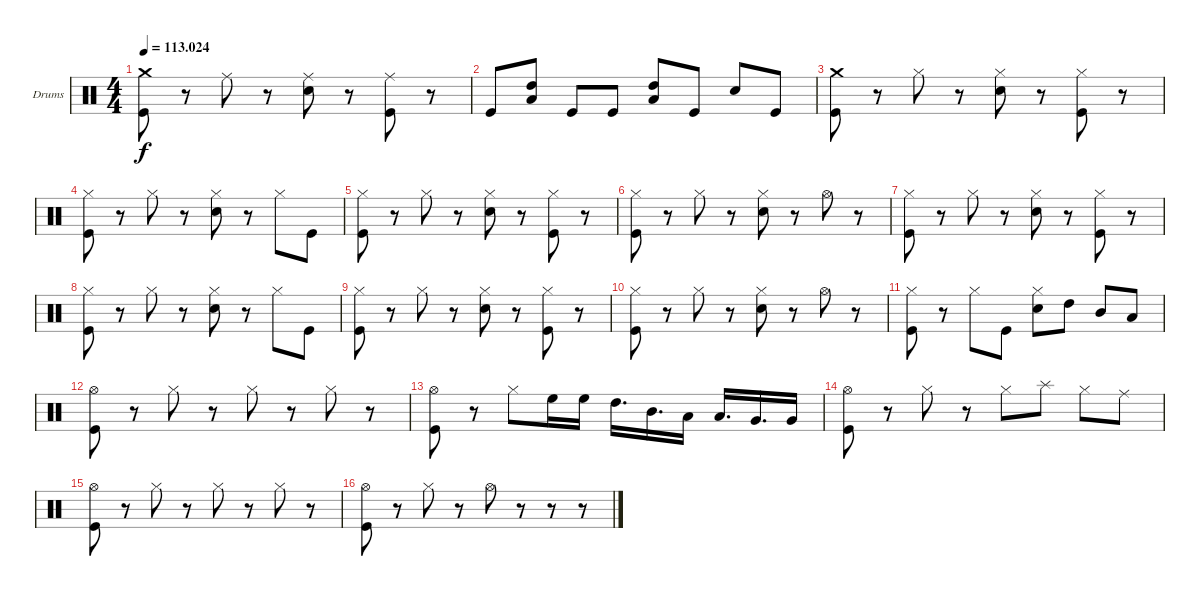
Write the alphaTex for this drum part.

\bracketExtendMode groupsimilarinstruments
\firstSystemTrackNameOrientation horizontal
\otherSystemsTrackNameOrientation horizontal
\track ("Ударные (Кривенков Д)" "Drums") {instrument percussion}
\staff {score}
\articulation defaults
\ts (4 4)
\tempo
113.024
\accidentals auto
\clef neutral
\ottava regular
\simile none
\ks c
("Crash medium (hit)" "Kick (hit)").8{dy f} r.8 "Ride (middle)".8 r.8 ("Ride (middle)" "Snare (hit) 2").8 r.8 ("Ride (middle)" "Kick (hit)").8 r.8 |
"Kick (hit)".8 ("High Tom (hit)" "Low Tom (hit)").8 "Kick (hit)".8 "Kick (hit)".8 ("High Tom (hit)" "Low Tom (hit)").8 "Kick (hit)".8 "Snare (hit) 2".8 "Kick (hit)".8 |
("Crash medium (hit)" "Kick (hit)").8 r.8 "Hi-Hat (closed)".8 r.8 ("Hi-Hat (closed)" "Snare (hit) 2").8 r.8 ("Hi-Hat (closed)" "Kick (hit)").8 r.8 |
("Hi-Hat (closed)" "Kick (hit)").8 r.8 "Hi-Hat (closed)".8 r.8 ("Hi-Hat (closed)" "Snare (hit) 2").8 r.8 "Hi-Hat (closed)".8 "Kick (hit)".8 |
("Hi-Hat (closed)" "Kick (hit)").8 r.8 "Hi-Hat (closed)".8 r.8 ("Hi-Hat (closed)" "Snare (hit) 2").8 r.8 ("Hi-Hat (closed)" "Kick (hit)").8 r.8 |
("Hi-Hat (closed)" "Kick (hit)").8 r.8 "Hi-Hat (closed)".8 r.8 ("Hi-Hat (closed)" "Snare (hit) 2").8 r.8 "Hi-Hat (open)".8 r.8 |
("Hi-Hat (closed)" "Kick (hit)").8 r.8 "Hi-Hat (closed)".8 r.8 ("Hi-Hat (closed)" "Snare (hit) 2").8 r.8 ("Hi-Hat (closed)" "Kick (hit)").8 r.8 |
("Hi-Hat (closed)" "Kick (hit)").8 r.8 "Hi-Hat (closed)".8 r.8 ("Hi-Hat (closed)" "Snare (hit) 2").8 r.8 "Hi-Hat (closed)".8 "Kick (hit)".8 |
("Hi-Hat (closed)" "Kick (hit)").8 r.8 "Hi-Hat (closed)".8 r.8 ("Hi-Hat (closed)" "Snare (hit) 2").8 r.8 ("Hi-Hat (closed)" "Kick (hit)").8 r.8 |
("Hi-Hat (closed)" "Kick (hit)").8 r.8 "Hi-Hat (closed)".8 r.8 ("Hi-Hat (closed)" "Snare (hit) 2").8 r.8 "Hi-Hat (open)".8 r.8 |
("Hi-Hat (closed)" "Kick (hit)").8 r.8 "Hi-Hat (closed)".8 "Kick (hit)".8 ("Hi-Hat (closed)" "Snare (hit) 2").8 "High Tom (hit)".8 "Mid Tom (hit)".8 "Low Tom (hit)".8 |
("Hi-Hat (open)" "Kick (hit)").8 r.8 "Hi-Hat (closed)".8 r.8 "Hi-Hat (closed)".8 r.8 "Hi-Hat (closed)".8 r.8 |
("Hi-Hat (open)" "Kick (hit)").8 r.8 "Hi-Hat (closed)".8 "High Floor Tom (hit)".16 "High Floor Tom (hit)".16 "High Tom (hit)".16{d} "Mid Tom (hit)".16{d} "Low Tom (hit)".16 "Low Tom (hit)".16{d} "Very Low Tom (hit)".16{d} "Very Low Tom (hit)".16 |
("Hi-Hat (open)" "Kick (hit)").8 r.8 "Hi-Hat (closed)".8 r.8 "Hi-Hat (closed)".8 "Splash (hit)".8 "Hi-Hat (closed)".8 "Ride (middle)".8 |
("Hi-Hat (open)" "Kick (hit)").8 r.8 "Hi-Hat (closed)".8 r.8 "Hi-Hat (closed)".8 r.8 "Hi-Hat (closed)".8 r.8 |
("Hi-Hat (open)" "Kick (hit)").8 r.8 "Hi-Hat (closed)".8 r.8 "Hi-Hat (open)".8 r.8 r.8 r.8
